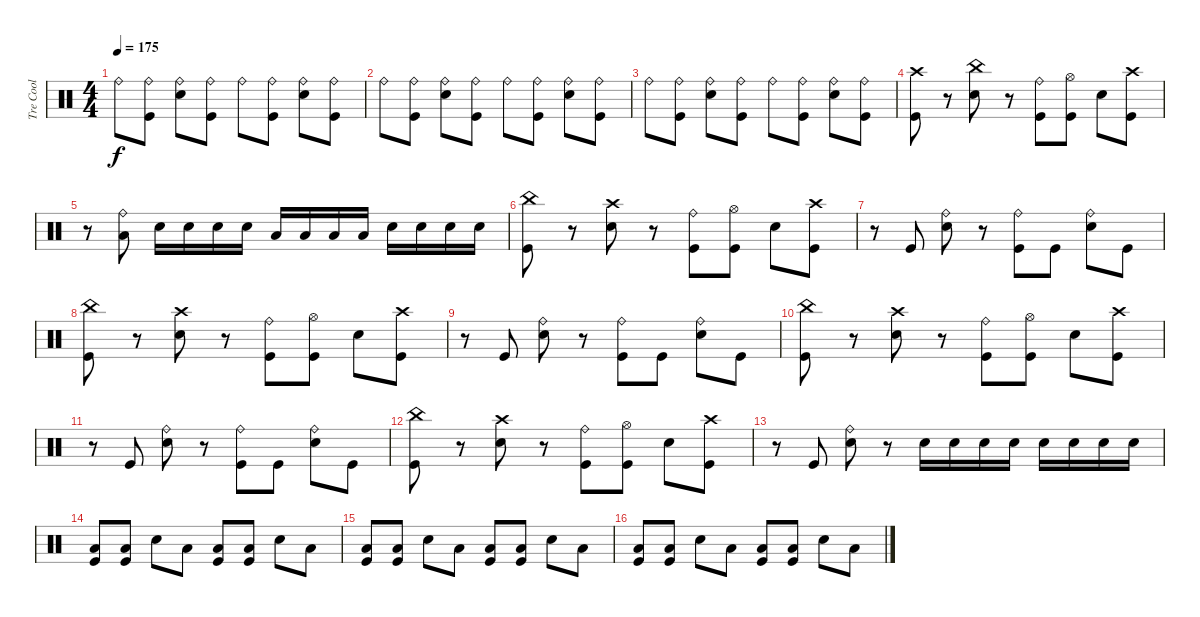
\track ("Tre Cool" "Tre Cool") {instrument percussion}
\staff {score}
\articulation defaults
\ts (4 4)
\tempo 175
\clef neutral
\ks c "Ride (bell)".8{dy f}
("Kick (hit)" "Ride (bell)").8 ("Snare (hit) 2" "Ride (bell)").8 ("Kick (hit)" "Ride (bell)").8 "Ride (bell)".8 ("Kick (hit)" "Ride (bell)").8 ("Snare (hit) 2" "Ride (bell)").8 ("Kick (hit)" "Ride (bell)").8 |
"Ride (bell)".8 ("Kick (hit)" "Ride (bell)").8 ("Snare (hit) 2" "Ride (bell)").8 ("Kick (hit)" "Ride (bell)").8 "Ride (bell)".8 ("Kick (hit)" "Ride (bell)").8 ("Snare (hit) 2" "Ride (bell)").8 ("Kick (hit)" "Ride (bell)").8 |
"Ride (bell)".8 ("Kick (hit)" "Ride (bell)").8 ("Snare (hit) 2" "Ride (bell)").8 ("Kick (hit)" "Ride (bell)").8 "Ride (bell)".8 ("Kick (hit)" "Ride (bell)").8 ("Snare (hit) 2" "Ride (bell)").8 ("Kick (hit)" "Ride (bell)").8 |
("Kick (hit)" "Crash high (hit)").8 r.8 ("Snare (hit) 2" "China (hit)").8 r.8 ("Kick (hit)" "Ride (bell)").8 ("Kick (hit)" "Hi-Hat (open)").8 "Snare (hit) 2".8 ("Kick (hit)" "Crash high (hit)").8 |
r.8 ("Low Floor Tom (hit)" "Ride (bell)").8 "Snare (hit) 2".16 "Snare (hit) 2".16 "Snare (hit) 2".16 "Snare (hit) 2".16 "Low Tom (hit)".16 "Low Tom (hit)".16 "Low Tom (hit)".16 "Low Tom (hit)".16 "Snare (hit) 2".16 "Snare (hit) 2".16 "Snare (hit) 2".16 "Snare (hit) 2".16 |
("Kick (hit)" "China (hit)").8 r.8 ("Snare (hit) 2" "Crash high (hit)").8 r.8 ("Kick (hit)" "Ride (bell)").8 ("Kick (hit)" "Hi-Hat (open)").8 "Snare (hit) 2".8 ("Kick (hit)" "Crash high (hit)").8 |
r.8 "Kick (hit)".8 ("Snare (hit) 2" "Ride (bell)").8 r.8 ("Kick (hit)" "Ride (bell)").8 "Kick (hit)".8 ("Snare (hit) 2" "Ride (bell)").8 "Kick (hit)".8 |
("Kick (hit)" "China (hit)").8 r.8 ("Snare (hit) 2" "Crash high (hit)").8 r.8 ("Kick (hit)" "Ride (bell)").8 ("Kick (hit)" "Hi-Hat (open)").8 "Snare (hit) 2".8 ("Kick (hit)" "Crash high (hit)").8 |
r.8 "Kick (hit)".8 ("Snare (hit) 2" "Ride (bell)").8 r.8 ("Kick (hit)" "Ride (bell)").8 "Kick (hit)".8 ("Snare (hit) 2" "Ride (bell)").8 "Kick (hit)".8 |
("Kick (hit)" "China (hit)").8 r.8 ("Snare (hit) 2" "Crash high (hit)").8 r.8 ("Kick (hit)" "Ride (bell)").8 ("Kick (hit)" "Hi-Hat (open)").8 "Snare (hit) 2".8 ("Kick (hit)" "Crash high (hit)").8 |
r.8 "Kick (hit)".8 ("Snare (hit) 2" "Ride (bell)").8 r.8 ("Kick (hit)" "Ride (bell)").8 "Kick (hit)".8 ("Snare (hit) 2" "Ride (bell)").8 "Kick (hit)".8 |
("Kick (hit)" "China (hit)").8 r.8 ("Snare (hit) 2" "Crash high (hit)").8 r.8 ("Kick (hit)" "Ride (bell)").8 ("Kick (hit)" "Hi-Hat (open)").8 "Snare (hit) 2".8 ("Kick (hit)" "Crash high (hit)").8 |
r.8 "Kick (hit)".8 ("Snare (hit) 2" "Ride (bell)").8 r.8 "Snare (hit) 2".16 "Snare (hit) 2".16 "Snare (hit) 2".16 "Snare (hit) 2".16 "Snare (hit) 2".16 "Snare (hit) 2".16 "Snare (hit) 2".16 "Snare (hit) 2".16 |
("Kick (hit)" "Low Floor Tom (hit)").8 ("Kick (hit)" "Low Floor Tom (hit)").8 "Snare (hit) 2".8 "Low Floor Tom (hit)".8 ("Kick (hit)" "Low Floor Tom (hit)").8 ("Kick (hit)" "Low Floor Tom (hit)").8 "Snare (hit) 2".8 "Low Floor Tom (hit)".8 |
("Kick (hit)" "Low Floor Tom (hit)").8 ("Kick (hit)" "Low Floor Tom (hit)").8 "Snare (hit) 2".8 "Low Floor Tom (hit)".8 ("Kick (hit)" "Low Floor Tom (hit)").8 ("Kick (hit)" "Low Floor Tom (hit)").8 "Snare (hit) 2".8 "Low Floor Tom (hit)".8 |
("Kick (hit)" "Low Floor Tom (hit)").8 ("Kick (hit)" "Low Floor Tom (hit)").8 "Snare (hit) 2".8 "Low Floor Tom (hit)".8 ("Kick (hit)" "Low Floor Tom (hit)").8 ("Kick (hit)" "Low Floor Tom (hit)").8 "Snare (hit) 2".8 "Low Floor Tom (hit)".8
